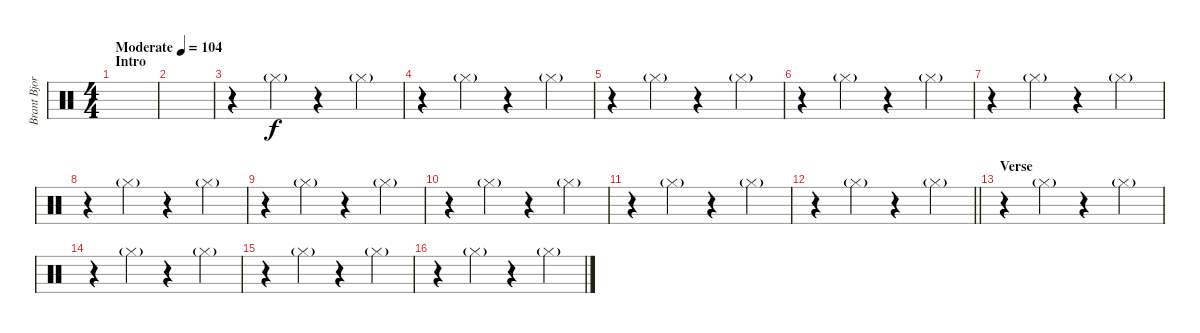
\track ("Brant Bjork - Drums" "Brant Bjor") {instrument percussion}
\staff {score}
\articulation defaults
\ts (4 4)
\section ("" "Intro")
\tempo (104 "Moderate")
\clef neutral
\ks c
|
|
r.4 "Hi-Hat (closed)"{g}.4 r.4 "Hi-Hat (closed)"{g}.4 |
r.4 "Hi-Hat (closed)"{g}.4 r.4 "Hi-Hat (closed)"{g}.4 |
r.4 "Hi-Hat (closed)"{g}.4 r.4 "Hi-Hat (closed)"{g}.4 |
r.4 "Hi-Hat (closed)"{g}.4 r.4 "Hi-Hat (closed)"{g}.4 |
r.4 "Hi-Hat (closed)"{g}.4 r.4 "Hi-Hat (closed)"{g}.4 |
r.4 "Hi-Hat (closed)"{g}.4 r.4 "Hi-Hat (closed)"{g}.4 |
r.4 "Hi-Hat (closed)"{g}.4 r.4 "Hi-Hat (closed)"{g}.4 |
r.4 "Hi-Hat (closed)"{g}.4 r.4 "Hi-Hat (closed)"{g}.4 |
r.4 "Hi-Hat (closed)"{g}.4 r.4 "Hi-Hat (closed)"{g}.4 |
\barLineRight lightlight
r.4 "Hi-Hat (closed)"{g}.4 r.4 "Hi-Hat (closed)"{g}.4 |
\section ("" "Verse")
r.4 "Hi-Hat (closed)"{g}.4 r.4 "Hi-Hat (closed)"{g}.4 |
r.4 "Hi-Hat (closed)"{g}.4 r.4 "Hi-Hat (closed)"{g}.4 |
r.4 "Hi-Hat (closed)"{g}.4 r.4 "Hi-Hat (closed)"{g}.4 |
r.4 "Hi-Hat (closed)"{g}.4 r.4 "Hi-Hat (closed)"{g}.4
